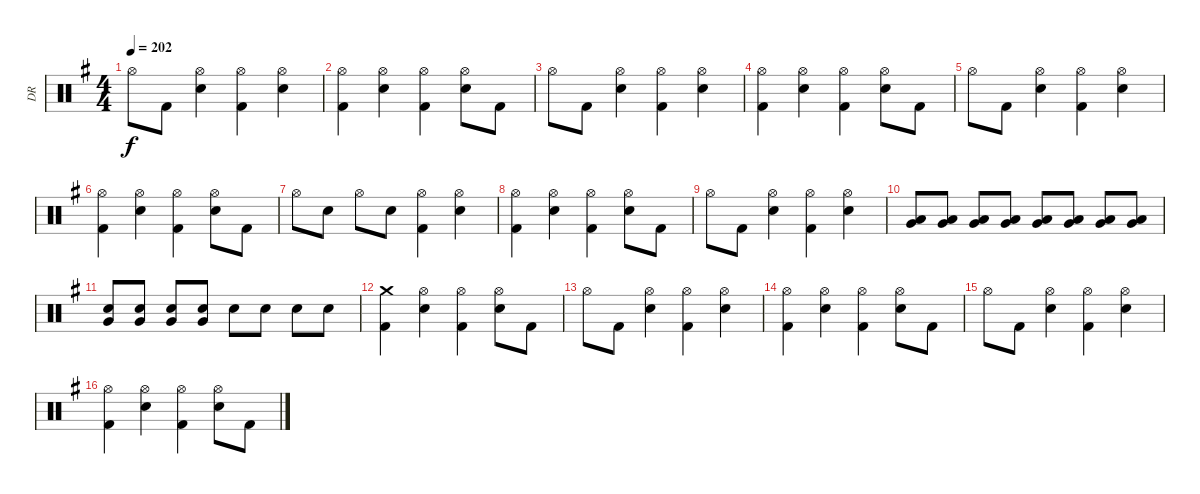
\track ("DR" "DR") {instrument percussion}
\staff {score}
\articulation defaults
\ts (4 4)
\tempo 202
\clef neutral
\ks g "Hi-Hat (open)".8{dy f} "Kick (hit) 2".8
("Hi-Hat (open)" "Electric Snare (hit)").4 ("Hi-Hat (open)" "Kick (hit) 2").4 ("Hi-Hat (open)" "Electric Snare (hit)").4 |
("Hi-Hat (open)" "Kick (hit) 2").4 ("Hi-Hat (open)" "Electric Snare (hit)").4 ("Hi-Hat (open)" "Kick (hit) 2").4 ("Hi-Hat (open)" "Electric Snare (hit)").8 "Kick (hit) 2".8 |
"Hi-Hat (open)".8 "Kick (hit) 2".8 ("Hi-Hat (open)" "Electric Snare (hit)").4 ("Hi-Hat (open)" "Kick (hit) 2").4 ("Hi-Hat (open)" "Electric Snare (hit)").4 |
("Hi-Hat (open)" "Kick (hit) 2").4 ("Hi-Hat (open)" "Electric Snare (hit)").4 ("Hi-Hat (open)" "Kick (hit) 2").4 ("Hi-Hat (open)" "Electric Snare (hit)").8 "Kick (hit) 2".8 |
"Hi-Hat (open)".8 "Kick (hit) 2".8 ("Hi-Hat (open)" "Electric Snare (hit)").4 ("Hi-Hat (open)" "Kick (hit) 2").4 ("Hi-Hat (open)" "Electric Snare (hit)").4 |
("Hi-Hat (open)" "Kick (hit) 2").4 ("Hi-Hat (open)" "Electric Snare (hit)").4 ("Hi-Hat (open)" "Kick (hit) 2").4 ("Hi-Hat (open)" "Electric Snare (hit)").8 "Kick (hit) 2".8 |
"Hi-Hat (open)".8 "Electric Snare (hit)".8 "Hi-Hat (open)".8 "Electric Snare (hit)".8 ("Hi-Hat (open)" "Kick (hit) 2").4 ("Hi-Hat (open)" "Electric Snare (hit)").4 |
("Hi-Hat (open)" "Kick (hit) 2").4 ("Hi-Hat (open)" "Electric Snare (hit)").4 ("Hi-Hat (open)" "Kick (hit) 2").4 ("Hi-Hat (open)" "Electric Snare (hit)").8 "Kick (hit) 2".8 |
"Hi-Hat (open)".8 "Kick (hit) 2".8 ("Hi-Hat (open)" "Electric Snare (hit)").4 ("Hi-Hat (open)" "Kick (hit) 2").4 ("Hi-Hat (open)" "Electric Snare (hit)").4 |
("Very Low Tom (hit)" "Low Tom (hit)").8 ("Very Low Tom (hit)" "Low Tom (hit)").8 ("Very Low Tom (hit)" "Low Tom (hit)").8 ("Very Low Tom (hit)" "Low Tom (hit)").8 ("Very Low Tom (hit)" "Low Floor Tom (hit)").8 ("Very Low Tom (hit)" "Low Floor Tom (hit)").8 ("Very Low Tom (hit)" "Low Floor Tom (hit)").8 ("Very Low Tom (hit)" "Low Floor Tom (hit)").8 |
("Very Low Tom (hit)" "Electric Snare (hit)").8 ("Very Low Tom (hit)" "Electric Snare (hit)").8 ("Very Low Tom (hit)" "Electric Snare (hit)").8 ("Very Low Tom (hit)" "Electric Snare (hit)").8 "Electric Snare (hit)".8 "Electric Snare (hit)".8 "Electric Snare (hit)".8 "Electric Snare (hit)".8 |
("Crash medium (hit)" "Kick (hit) 2").4 ("Hi-Hat (open)" "Electric Snare (hit)").4 ("Hi-Hat (open)" "Kick (hit) 2").4 ("Hi-Hat (open)" "Electric Snare (hit)").8 "Kick (hit) 2".8 |
"Hi-Hat (open)".8 "Kick (hit) 2".8 ("Hi-Hat (open)" "Electric Snare (hit)").4 ("Hi-Hat (open)" "Kick (hit) 2").4 ("Hi-Hat (open)" "Electric Snare (hit)").4 |
("Hi-Hat (open)" "Kick (hit) 2").4 ("Hi-Hat (open)" "Electric Snare (hit)").4 ("Hi-Hat (open)" "Kick (hit) 2").4 ("Hi-Hat (open)" "Electric Snare (hit)").8 "Kick (hit) 2".8 |
"Hi-Hat (open)".8 "Kick (hit) 2".8 ("Hi-Hat (open)" "Electric Snare (hit)").4 ("Hi-Hat (open)" "Kick (hit) 2").4 ("Hi-Hat (open)" "Electric Snare (hit)").4 |
("Hi-Hat (open)" "Kick (hit) 2").4 ("Hi-Hat (open)" "Electric Snare (hit)").4 ("Hi-Hat (open)" "Kick (hit) 2").4 ("Hi-Hat (open)" "Electric Snare (hit)").8 "Kick (hit) 2".8
